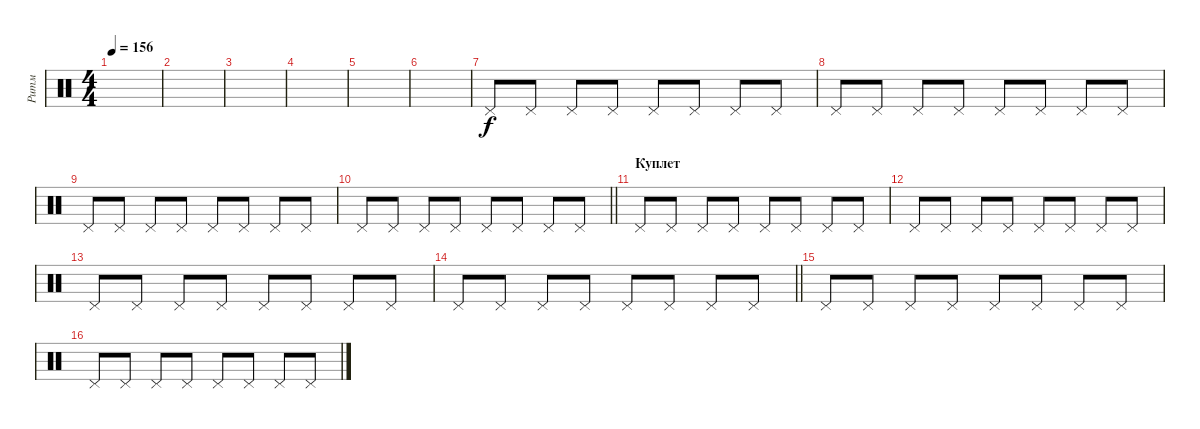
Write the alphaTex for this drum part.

\track ("Ритм" "Ритм") {instrument percussion}
\staff {score}
\articulation defaults
\ts (4 4)
\tempo 156
\clef neutral
\ks c
|
|
|
|
|
|
"Pedal Hi-Hat (hit)".8 "Pedal Hi-Hat (hit)".8 "Pedal Hi-Hat (hit)".8 "Pedal Hi-Hat (hit)".8 "Pedal Hi-Hat (hit)".8 "Pedal Hi-Hat (hit)".8 "Pedal Hi-Hat (hit)".8 "Pedal Hi-Hat (hit)".8 |
"Pedal Hi-Hat (hit)".8 "Pedal Hi-Hat (hit)".8 "Pedal Hi-Hat (hit)".8 "Pedal Hi-Hat (hit)".8 "Pedal Hi-Hat (hit)".8 "Pedal Hi-Hat (hit)".8 "Pedal Hi-Hat (hit)".8 "Pedal Hi-Hat (hit)".8 |
"Pedal Hi-Hat (hit)".8 "Pedal Hi-Hat (hit)".8 "Pedal Hi-Hat (hit)".8 "Pedal Hi-Hat (hit)".8 "Pedal Hi-Hat (hit)".8 "Pedal Hi-Hat (hit)".8 "Pedal Hi-Hat (hit)".8 "Pedal Hi-Hat (hit)".8 |
\barLineRight lightlight "Pedal Hi-Hat (hit)".8 "Pedal Hi-Hat (hit)".8 "Pedal Hi-Hat (hit)".8 "Pedal Hi-Hat (hit)".8 "Pedal Hi-Hat (hit)".8 "Pedal Hi-Hat (hit)".8 "Pedal Hi-Hat (hit)".8 "Pedal Hi-Hat (hit)".8
|
\section ("" "Куплет")
"Pedal Hi-Hat (hit)".8 "Pedal Hi-Hat (hit)".8 "Pedal Hi-Hat (hit)".8 "Pedal Hi-Hat (hit)".8 "Pedal Hi-Hat (hit)".8 "Pedal Hi-Hat (hit)".8 "Pedal Hi-Hat (hit)".8 "Pedal Hi-Hat (hit)".8 |
"Pedal Hi-Hat (hit)".8 "Pedal Hi-Hat (hit)".8 "Pedal Hi-Hat (hit)".8 "Pedal Hi-Hat (hit)".8 "Pedal Hi-Hat (hit)".8 "Pedal Hi-Hat (hit)".8 "Pedal Hi-Hat (hit)".8 "Pedal Hi-Hat (hit)".8 |
"Pedal Hi-Hat (hit)".8 "Pedal Hi-Hat (hit)".8 "Pedal Hi-Hat (hit)".8 "Pedal Hi-Hat (hit)".8 "Pedal Hi-Hat (hit)".8 "Pedal Hi-Hat (hit)".8 "Pedal Hi-Hat (hit)".8 "Pedal Hi-Hat (hit)".8 |
\barLineRight lightlight "Pedal Hi-Hat (hit)".8 "Pedal Hi-Hat (hit)".8 "Pedal Hi-Hat (hit)".8 "Pedal Hi-Hat (hit)".8 "Pedal Hi-Hat (hit)".8 "Pedal Hi-Hat (hit)".8 "Pedal Hi-Hat (hit)".8 "Pedal Hi-Hat (hit)".8
|
"Pedal Hi-Hat (hit)".8 "Pedal Hi-Hat (hit)".8 "Pedal Hi-Hat (hit)".8 "Pedal Hi-Hat (hit)".8 "Pedal Hi-Hat (hit)".8 "Pedal Hi-Hat (hit)".8 "Pedal Hi-Hat (hit)".8 "Pedal Hi-Hat (hit)".8 |
"Pedal Hi-Hat (hit)".8 "Pedal Hi-Hat (hit)".8 "Pedal Hi-Hat (hit)".8 "Pedal Hi-Hat (hit)".8 "Pedal Hi-Hat (hit)".8 "Pedal Hi-Hat (hit)".8 "Pedal Hi-Hat (hit)".8 "Pedal Hi-Hat (hit)".8
